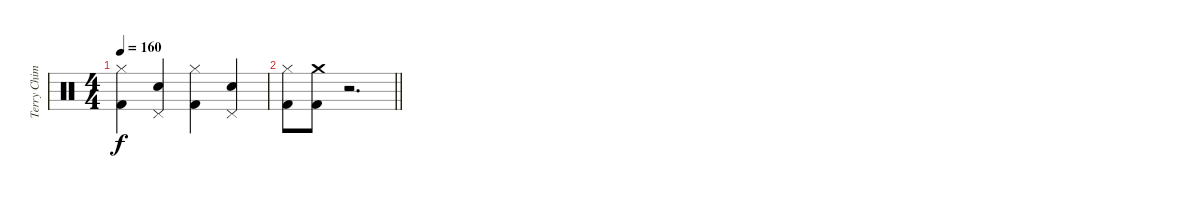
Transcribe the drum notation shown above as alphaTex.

\track ("Terry Chimes - Drums" "Terry Chim") {instrument percussion}
\staff {score}
\articulation defaults
\ts (4 4)
\tempo 160
\clef neutral
\ks c
("Hi-Hat (closed)" "Kick (hit) 2").4{dy f} ("Pedal Hi-Hat (hit)" "Snare (hit) 2").4 ("Hi-Hat (closed)" "Kick (hit) 2").4 ("Pedal Hi-Hat (hit)" "Snare (hit) 2").4 |
\barLineRight lightlight
("Hi-Hat (closed)" "Kick (hit) 2").8 ("Crash medium (hit)" "Kick (hit) 2").8 r.2{d}
